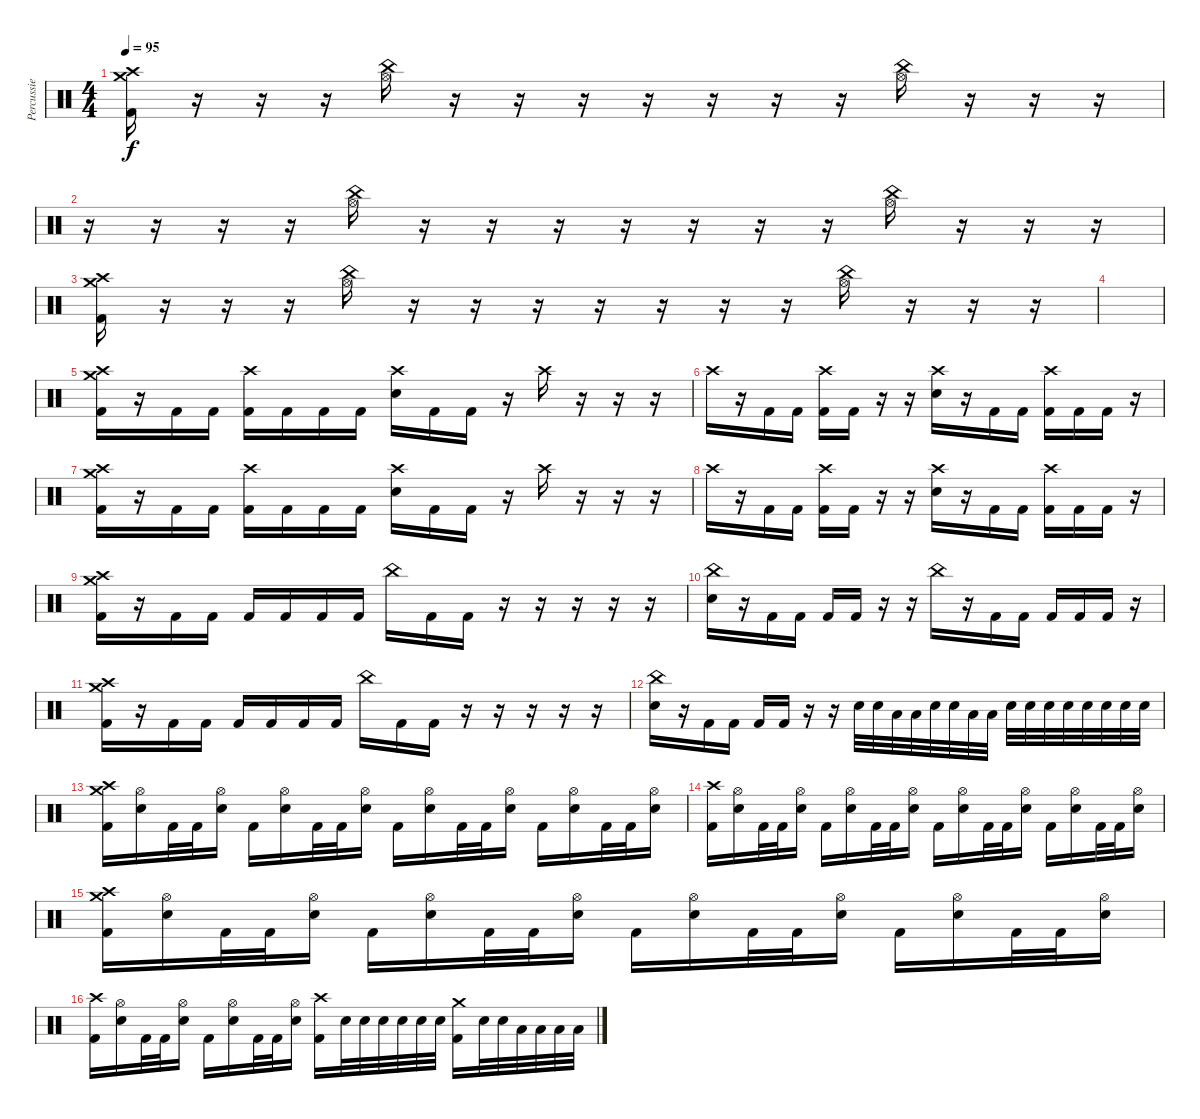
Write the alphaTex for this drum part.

\track ("Percussie" "Percussie") {instrument percussion}
\staff {score}
\articulation defaults
\ts (4 4)
\tempo 95
\clef neutral
\ks c
("Crash medium (hit)" "Crash high (hit)" "Kick (hit) 2").16{dy f} r.16 r.16 r.16 ("China (hit)" "Hi-Hat (open)").16 r.16 r.16 r.16 r.16 r.16 r.16 r.16 ("China (hit)" "Hi-Hat (open)").16 r.16 r.16 r.16 |
r.16 r.16 r.16 r.16 ("China (hit)" "Hi-Hat (open)").16 r.16 r.16 r.16 r.16 r.16 r.16 r.16 ("China (hit)" "Hi-Hat (open)").16 r.16 r.16 r.16 |
("Crash medium (hit)" "Crash high (hit)" "Kick (hit) 2").16 r.16 r.16 r.16 ("China (hit)" "Hi-Hat (open)").16 r.16 r.16 r.16 r.16 r.16 r.16 r.16 ("China (hit)" "Hi-Hat (open)").16 r.16 r.16 r.16 |
|
("Crash medium (hit)" "Crash high (hit)" "Kick (hit) 2").16 r.16 "Kick (hit) 2".16 "Kick (hit) 2".16 ("Crash high (hit)" "Kick (hit) 2").16 "Kick (hit) 2".16 "Kick (hit) 2".16 "Kick (hit) 2".16 ("Crash high (hit)" "Electric Snare (hit)").16 "Kick (hit) 2".16 "Kick (hit) 2".16 r.16 "Crash high (hit)".16 r.16 r.16 r.16 |
"Crash high (hit)".16 r.16 "Kick (hit) 2".16 "Kick (hit) 2".16 ("Crash high (hit)" "Kick (hit) 2").16 "Kick (hit) 2".16 r.16 r.16 ("Crash high (hit)" "Electric Snare (hit)").16 r.16 "Kick (hit) 2".16 "Kick (hit) 2".16 ("Crash high (hit)" "Kick (hit) 2").16 "Kick (hit) 2".16 "Kick (hit) 2".16 r.16 |
("Crash medium (hit)" "Crash high (hit)" "Kick (hit) 2").16 r.16 "Kick (hit) 2".16 "Kick (hit) 2".16 ("Crash high (hit)" "Kick (hit) 2").16 "Kick (hit) 2".16 "Kick (hit) 2".16 "Kick (hit) 2".16 ("Crash high (hit)" "Electric Snare (hit)").16 "Kick (hit) 2".16 "Kick (hit) 2".16 r.16 "Crash high (hit)".16 r.16 r.16 r.16 |
"Crash high (hit)".16 r.16 "Kick (hit) 2".16 "Kick (hit) 2".16 ("Crash high (hit)" "Kick (hit) 2").16 "Kick (hit) 2".16 r.16 r.16 ("Crash high (hit)" "Electric Snare (hit)").16 r.16 "Kick (hit) 2".16 "Kick (hit) 2".16 ("Crash high (hit)" "Kick (hit) 2").16 "Kick (hit) 2".16 "Kick (hit) 2".16 r.16 |
("Crash medium (hit)" "Crash high (hit)" "Kick (hit) 2").16 r.16 "Kick (hit) 2".16 "Kick (hit) 2".16 "Kick (hit) 2".16 "Kick (hit) 2".16 "Kick (hit) 2".16 "Kick (hit) 2".16 "China (hit)".16 "Kick (hit) 2".16 "Kick (hit) 2".16 r.16 r.16 r.16 r.16 r.16 |
("China (hit)" "Electric Snare (hit)").16 r.16 "Kick (hit) 2".16 "Kick (hit) 2".16 "Kick (hit) 2".16 "Kick (hit) 2".16 r.16 r.16 "China (hit)".16 r.16 "Kick (hit) 2".16 "Kick (hit) 2".16 "Kick (hit) 2".16 "Kick (hit) 2".16 "Kick (hit) 2".16 r.16 |
("Crash medium (hit)" "Crash high (hit)" "Kick (hit) 2").16 r.16 "Kick (hit) 2".16 "Kick (hit) 2".16 "Kick (hit) 2".16 "Kick (hit) 2".16 "Kick (hit) 2".16 "Kick (hit) 2".16 "China (hit)".16 "Kick (hit) 2".16 "Kick (hit) 2".16 r.16 r.16 r.16 r.16 r.16 |
("China (hit)" "Electric Snare (hit)").16 r.16 "Kick (hit) 2".16 "Kick (hit) 2".16 "Kick (hit) 2".16 "Kick (hit) 2".16 r.16 r.16 "Electric Snare (hit)".32 "Electric Snare (hit)".32 "Low Tom (hit)".32 "Low Tom (hit)".32 "Electric Snare (hit)".32 "Electric Snare (hit)".32 "Low Floor Tom (hit)".32 "Low Floor Tom (hit)".32 "Electric Snare (hit)".32 "Electric Snare (hit)".32 "Electric Snare (hit)".32 "Electric Snare (hit)".32 "Electric Snare (hit)".32 "Electric Snare (hit)".32 "Electric Snare (hit)".32 "Electric Snare (hit)".32 |
("Crash medium (hit)" "Crash high (hit)" "Kick (hit) 2").16 ("Hi-Hat (open)" "Electric Snare (hit)").16 "Kick (hit) 2".32 "Kick (hit) 2".32 ("Hi-Hat (open)" "Electric Snare (hit)").16 "Kick (hit) 2".16 ("Hi-Hat (open)" "Electric Snare (hit)").16 "Kick (hit) 2".32 "Kick (hit) 2".32 ("Hi-Hat (open)" "Electric Snare (hit)").16 "Kick (hit) 2".16 ("Hi-Hat (open)" "Electric Snare (hit)").16 "Kick (hit) 2".32 "Kick (hit) 2".32 ("Hi-Hat (open)" "Electric Snare (hit)").16 "Kick (hit) 2".16 ("Hi-Hat (open)" "Electric Snare (hit)").16 "Kick (hit) 2".32 "Kick (hit) 2".32 ("Hi-Hat (open)" "Electric Snare (hit)").16 |
("Crash high (hit)" "Kick (hit) 2").16 ("Hi-Hat (open)" "Electric Snare (hit)").16 "Kick (hit) 2".32 "Kick (hit) 2".32 ("Hi-Hat (open)" "Electric Snare (hit)").16 "Kick (hit) 2".16 ("Hi-Hat (open)" "Electric Snare (hit)").16 "Kick (hit) 2".32 "Kick (hit) 2".32 ("Hi-Hat (open)" "Electric Snare (hit)").16 "Kick (hit) 2".16 ("Hi-Hat (open)" "Electric Snare (hit)").16 "Kick (hit) 2".32 "Kick (hit) 2".32 ("Hi-Hat (open)" "Electric Snare (hit)").16 "Kick (hit) 2".16 ("Hi-Hat (open)" "Electric Snare (hit)").16 "Kick (hit) 2".32 "Kick (hit) 2".32 ("Hi-Hat (open)" "Electric Snare (hit)").16 |
("Crash medium (hit)" "Crash high (hit)" "Kick (hit) 2").16 ("Hi-Hat (open)" "Electric Snare (hit)").16 "Kick (hit) 2".32 "Kick (hit) 2".32 ("Hi-Hat (open)" "Electric Snare (hit)").16 "Kick (hit) 2".16 ("Hi-Hat (open)" "Electric Snare (hit)").16 "Kick (hit) 2".32 "Kick (hit) 2".32 ("Hi-Hat (open)" "Electric Snare (hit)").16 "Kick (hit) 2".16 ("Hi-Hat (open)" "Electric Snare (hit)").16 "Kick (hit) 2".32 "Kick (hit) 2".32 ("Hi-Hat (open)" "Electric Snare (hit)").16 "Kick (hit) 2".16 ("Hi-Hat (open)" "Electric Snare (hit)").16 "Kick (hit) 2".32 "Kick (hit) 2".32 ("Hi-Hat (open)" "Electric Snare (hit)").16 |
("Crash high (hit)" "Kick (hit) 2").16 ("Hi-Hat (open)" "Electric Snare (hit)").16 "Kick (hit) 2".32 "Kick (hit) 2".32 ("Hi-Hat (open)" "Electric Snare (hit)").16 "Kick (hit) 2".16 ("Hi-Hat (open)" "Electric Snare (hit)").16 "Kick (hit) 2".32 "Kick (hit) 2".32 ("Hi-Hat (open)" "Electric Snare (hit)").16 ("Crash high (hit)" "Kick (hit) 2").16 "Electric Snare (hit)".32 "Electric Snare (hit)".32 "Electric Snare (hit)".32 "Electric Snare (hit)".32 "Electric Snare (hit)".32 "Electric Snare (hit)".32 ("Crash medium (hit)" "Kick (hit) 2").16 "Electric Snare (hit)".32 "Electric Snare (hit)".32 "Low Tom (hit)".32 "Low Tom (hit)".32 "Low Floor Tom (hit)".32 "Low Floor Tom (hit)".32
